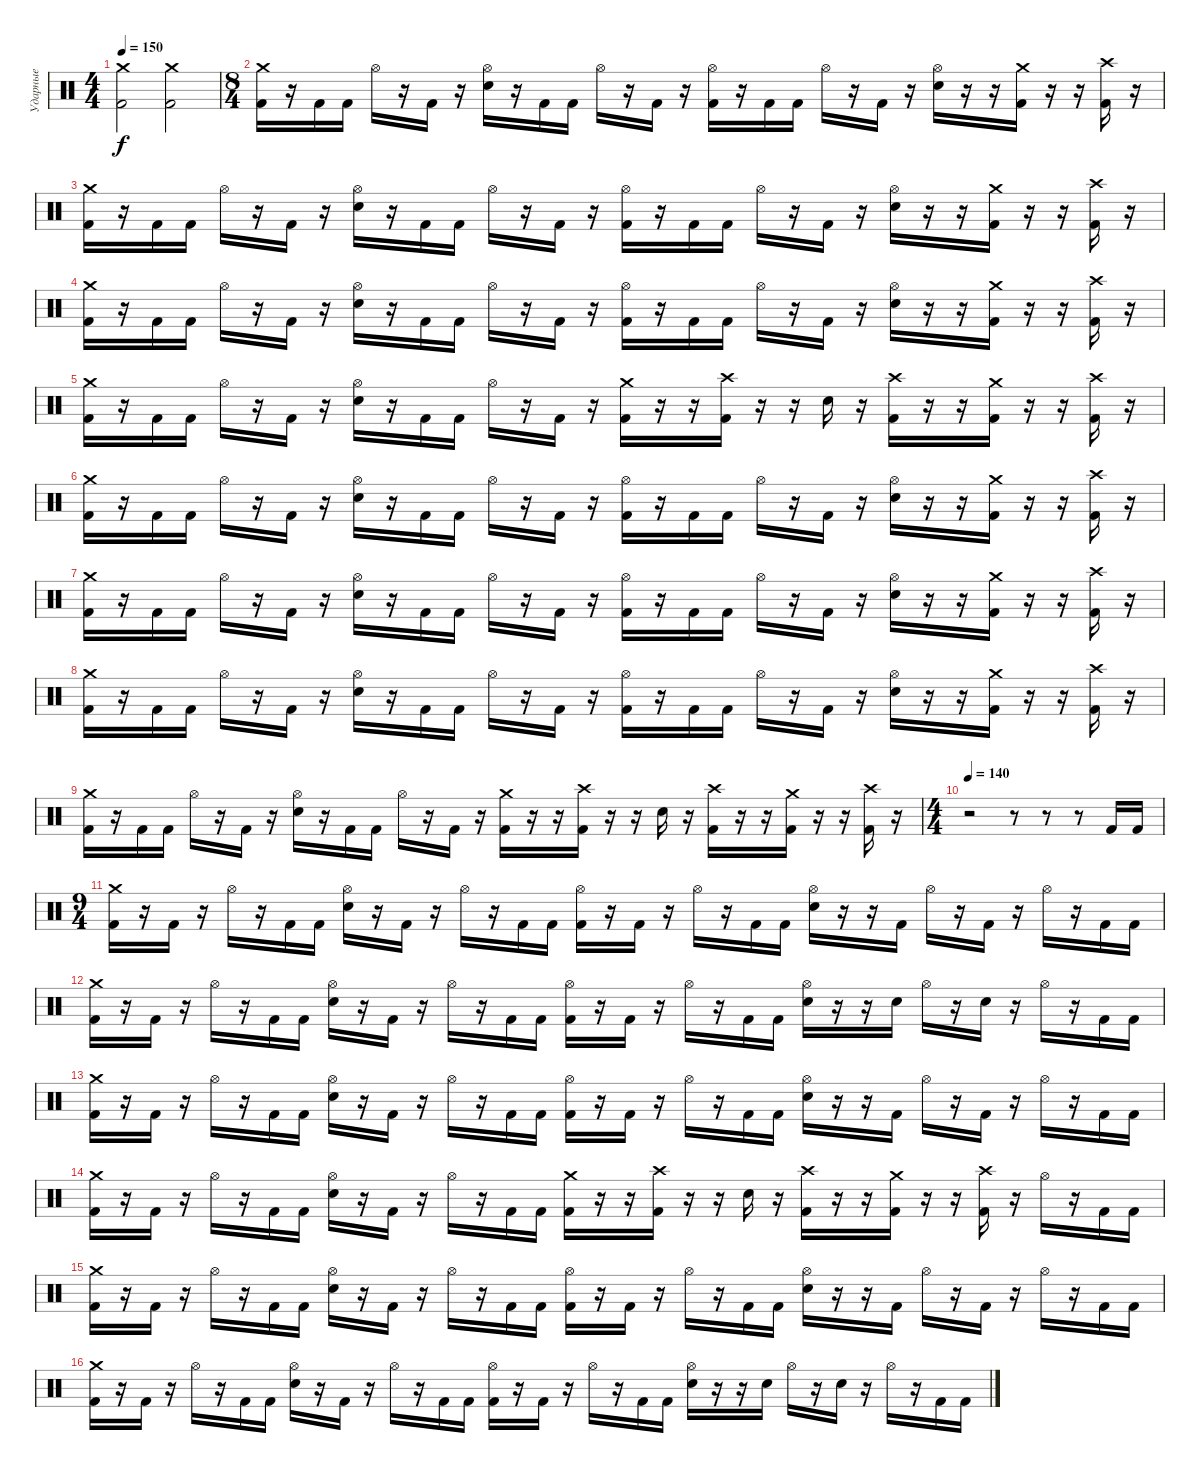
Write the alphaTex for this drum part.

\track ("Ударные" "Ударные") {instrument percussion}
\staff {score}
\articulation defaults
\ts (4 4)
\tempo 150
\clef neutral
\ks c
("Kick (hit) 2" "Crash medium (hit)").2{dy f} ("Kick (hit) 2" "Crash medium (hit)").2 |
\ts (8 4)
("Kick (hit) 2" "Crash medium (hit)").16 r.16 "Kick (hit) 2".16 "Kick (hit) 2".16 "Hi-Hat (open)".16 r.16 "Kick (hit) 2".16 r.16 ("Electric Snare (hit)" "Hi-Hat (open)").16 r.16 "Kick (hit) 2".16 "Kick (hit) 2".16 "Hi-Hat (open)".16 r.16 "Kick (hit) 2".16 r.16 ("Kick (hit) 2" "Hi-Hat (open)").16 r.16 "Kick (hit) 2".16 "Kick (hit) 2".16 "Hi-Hat (open)".16 r.16 "Kick (hit) 2".16 r.16 ("Electric Snare (hit)" "Hi-Hat (open)").16 r.16 r.16 ("Kick (hit) 2" "Crash medium (hit)").16 r.16 r.16 ("Kick (hit) 2" "Crash high (hit)").16 r.16 |
("Kick (hit) 2" "Crash medium (hit)").16 r.16 "Kick (hit) 2".16 "Kick (hit) 2".16 "Hi-Hat (open)".16 r.16 "Kick (hit) 2".16 r.16 ("Electric Snare (hit)" "Hi-Hat (open)").16 r.16 "Kick (hit) 2".16 "Kick (hit) 2".16 "Hi-Hat (open)".16 r.16 "Kick (hit) 2".16 r.16 ("Kick (hit) 2" "Hi-Hat (open)").16 r.16 "Kick (hit) 2".16 "Kick (hit) 2".16 "Hi-Hat (open)".16 r.16 "Kick (hit) 2".16 r.16 ("Electric Snare (hit)" "Hi-Hat (open)").16 r.16 r.16 ("Kick (hit) 2" "Crash medium (hit)").16 r.16 r.16 ("Kick (hit) 2" "Crash high (hit)").16 r.16 |
("Kick (hit) 2" "Crash medium (hit)").16 r.16 "Kick (hit) 2".16 "Kick (hit) 2".16 "Hi-Hat (open)".16 r.16 "Kick (hit) 2".16 r.16 ("Electric Snare (hit)" "Hi-Hat (open)").16 r.16 "Kick (hit) 2".16 "Kick (hit) 2".16 "Hi-Hat (open)".16 r.16 "Kick (hit) 2".16 r.16 ("Kick (hit) 2" "Hi-Hat (open)").16 r.16 "Kick (hit) 2".16 "Kick (hit) 2".16 "Hi-Hat (open)".16 r.16 "Kick (hit) 2".16 r.16 ("Electric Snare (hit)" "Hi-Hat (open)").16 r.16 r.16 ("Kick (hit) 2" "Crash medium (hit)").16 r.16 r.16 ("Kick (hit) 2" "Crash high (hit)").16 r.16 |
("Kick (hit) 2" "Crash medium (hit)").16 r.16 "Kick (hit) 2".16 "Kick (hit) 2".16 "Hi-Hat (open)".16 r.16 "Kick (hit) 2".16 r.16 ("Electric Snare (hit)" "Hi-Hat (open)").16 r.16 "Kick (hit) 2".16 "Kick (hit) 2".16 "Hi-Hat (open)".16 r.16 "Kick (hit) 2".16 r.16 ("Kick (hit) 2" "Crash medium (hit)").16 r.16 r.16 ("Kick (hit) 2" "Crash high (hit)").16 r.16 r.16 "Electric Snare (hit)".16 r.16 ("Kick (hit) 2" "Crash high (hit)").16 r.16 r.16 ("Kick (hit) 2" "Crash medium (hit)").16 r.16 r.16 ("Kick (hit) 2" "Crash high (hit)").16 r.16 |
("Kick (hit) 2" "Crash medium (hit)").16 r.16 "Kick (hit) 2".16 "Kick (hit) 2".16 "Hi-Hat (open)".16 r.16 "Kick (hit) 2".16 r.16 ("Electric Snare (hit)" "Hi-Hat (open)").16 r.16 "Kick (hit) 2".16 "Kick (hit) 2".16 "Hi-Hat (open)".16 r.16 "Kick (hit) 2".16 r.16 ("Kick (hit) 2" "Hi-Hat (open)").16 r.16 "Kick (hit) 2".16 "Kick (hit) 2".16 "Hi-Hat (open)".16 r.16 "Kick (hit) 2".16 r.16 ("Electric Snare (hit)" "Hi-Hat (open)").16 r.16 r.16 ("Kick (hit) 2" "Crash medium (hit)").16 r.16 r.16 ("Kick (hit) 2" "Crash high (hit)").16 r.16 |
("Kick (hit) 2" "Crash medium (hit)").16 r.16 "Kick (hit) 2".16 "Kick (hit) 2".16 "Hi-Hat (open)".16 r.16 "Kick (hit) 2".16 r.16 ("Electric Snare (hit)" "Hi-Hat (open)").16 r.16 "Kick (hit) 2".16 "Kick (hit) 2".16 "Hi-Hat (open)".16 r.16 "Kick (hit) 2".16 r.16 ("Kick (hit) 2" "Hi-Hat (open)").16 r.16 "Kick (hit) 2".16 "Kick (hit) 2".16 "Hi-Hat (open)".16 r.16 "Kick (hit) 2".16 r.16 ("Electric Snare (hit)" "Hi-Hat (open)").16 r.16 r.16 ("Kick (hit) 2" "Crash medium (hit)").16 r.16 r.16 ("Kick (hit) 2" "Crash high (hit)").16 r.16 |
("Kick (hit) 2" "Crash medium (hit)").16 r.16 "Kick (hit) 2".16 "Kick (hit) 2".16 "Hi-Hat (open)".16 r.16 "Kick (hit) 2".16 r.16 ("Electric Snare (hit)" "Hi-Hat (open)").16 r.16 "Kick (hit) 2".16 "Kick (hit) 2".16 "Hi-Hat (open)".16 r.16 "Kick (hit) 2".16 r.16 ("Kick (hit) 2" "Hi-Hat (open)").16 r.16 "Kick (hit) 2".16 "Kick (hit) 2".16 "Hi-Hat (open)".16 r.16 "Kick (hit) 2".16 r.16 ("Electric Snare (hit)" "Hi-Hat (open)").16 r.16 r.16 ("Kick (hit) 2" "Crash medium (hit)").16 r.16 r.16 ("Kick (hit) 2" "Crash high (hit)").16 r.16 |
("Kick (hit) 2" "Crash medium (hit)").16 r.16 "Kick (hit) 2".16 "Kick (hit) 2".16 "Hi-Hat (open)".16 r.16 "Kick (hit) 2".16 r.16 ("Electric Snare (hit)" "Hi-Hat (open)").16 r.16 "Kick (hit) 2".16 "Kick (hit) 2".16 "Hi-Hat (open)".16 r.16 "Kick (hit) 2".16 r.16 ("Kick (hit) 2" "Crash medium (hit)").16 r.16 r.16 ("Kick (hit) 2" "Crash high (hit)").16 r.16 r.16 "Electric Snare (hit)".16 r.16 ("Kick (hit) 2" "Crash high (hit)").16 r.16 r.16 ("Kick (hit) 2" "Crash medium (hit)").16 r.16 r.16 ("Kick (hit) 2" "Crash high (hit)").16 r.16 |
\ts (4 4)
\tempo 140
r.2 r.8 r.8 r.8 "Kick (hit) 2".16 "Kick (hit) 2".16 |
\ts (9 4)
("Kick (hit) 2" "Crash medium (hit)").16 r.16 "Kick (hit) 2".16 r.16 "Hi-Hat (open)".16 r.16 "Kick (hit) 2".16 "Kick (hit) 2".16 ("Electric Snare (hit)" "Hi-Hat (open)").16 r.16 "Kick (hit) 2".16 r.16 "Hi-Hat (open)".16 r.16 "Kick (hit) 2".16 "Kick (hit) 2".16 ("Kick (hit) 2" "Hi-Hat (open)").16 r.16 "Kick (hit) 2".16 r.16 "Hi-Hat (open)".16 r.16 "Kick (hit) 2".16 "Kick (hit) 2".16 ("Electric Snare (hit)" "Hi-Hat (open)").16 r.16 r.16 "Kick (hit) 2".16 "Hi-Hat (open)".16 r.16 "Kick (hit) 2".16 r.16 "Hi-Hat (open)".16 r.16 "Kick (hit) 2".16 "Kick (hit) 2".16 |
("Kick (hit) 2" "Crash medium (hit)").16 r.16 "Kick (hit) 2".16 r.16 "Hi-Hat (open)".16 r.16 "Kick (hit) 2".16 "Kick (hit) 2".16 ("Electric Snare (hit)" "Hi-Hat (open)").16 r.16 "Kick (hit) 2".16 r.16 "Hi-Hat (open)".16 r.16 "Kick (hit) 2".16 "Kick (hit) 2".16 ("Kick (hit) 2" "Hi-Hat (open)").16 r.16 "Kick (hit) 2".16 r.16 "Hi-Hat (open)".16 r.16 "Kick (hit) 2".16 "Kick (hit) 2".16 ("Electric Snare (hit)" "Hi-Hat (open)").16 r.16 r.16 "Electric Snare (hit)".16 "Hi-Hat (open)".16 r.16 "Electric Snare (hit)".16 r.16 "Hi-Hat (open)".16 r.16 "Kick (hit) 2".16 "Kick (hit) 2".16 |
("Kick (hit) 2" "Crash medium (hit)").16 r.16 "Kick (hit) 2".16 r.16 "Hi-Hat (open)".16 r.16 "Kick (hit) 2".16 "Kick (hit) 2".16 ("Electric Snare (hit)" "Hi-Hat (open)").16 r.16 "Kick (hit) 2".16 r.16 "Hi-Hat (open)".16 r.16 "Kick (hit) 2".16 "Kick (hit) 2".16 ("Kick (hit) 2" "Hi-Hat (open)").16 r.16 "Kick (hit) 2".16 r.16 "Hi-Hat (open)".16 r.16 "Kick (hit) 2".16 "Kick (hit) 2".16 ("Electric Snare (hit)" "Hi-Hat (open)").16 r.16 r.16 "Kick (hit) 2".16 "Hi-Hat (open)".16 r.16 "Kick (hit) 2".16 r.16 "Hi-Hat (open)".16 r.16 "Kick (hit) 2".16 "Kick (hit) 2".16 |
("Kick (hit) 2" "Crash medium (hit)").16 r.16 "Kick (hit) 2".16 r.16 "Hi-Hat (open)".16 r.16 "Kick (hit) 2".16 "Kick (hit) 2".16 ("Electric Snare (hit)" "Hi-Hat (open)").16 r.16 "Kick (hit) 2".16 r.16 "Hi-Hat (open)".16 r.16 "Kick (hit) 2".16 "Kick (hit) 2".16 ("Kick (hit) 2" "Crash medium (hit)").16 r.16 r.16 ("Kick (hit) 2" "Crash high (hit)").16 r.16 r.16 "Electric Snare (hit)".16 r.16 ("Kick (hit) 2" "Crash high (hit)").16 r.16 r.16 ("Kick (hit) 2" "Crash medium (hit)").16 r.16 r.16 ("Kick (hit) 2" "Crash high (hit)").16 r.16 "Hi-Hat (open)".16 r.16 "Kick (hit) 2".16 "Kick (hit) 2".16 |
("Kick (hit) 2" "Crash medium (hit)").16 r.16 "Kick (hit) 2".16 r.16 "Hi-Hat (open)".16 r.16 "Kick (hit) 2".16 "Kick (hit) 2".16 ("Electric Snare (hit)" "Hi-Hat (open)").16 r.16 "Kick (hit) 2".16 r.16 "Hi-Hat (open)".16 r.16 "Kick (hit) 2".16 "Kick (hit) 2".16 ("Kick (hit) 2" "Hi-Hat (open)").16 r.16 "Kick (hit) 2".16 r.16 "Hi-Hat (open)".16 r.16 "Kick (hit) 2".16 "Kick (hit) 2".16 ("Electric Snare (hit)" "Hi-Hat (open)").16 r.16 r.16 "Kick (hit) 2".16 "Hi-Hat (open)".16 r.16 "Kick (hit) 2".16 r.16 "Hi-Hat (open)".16 r.16 "Kick (hit) 2".16 "Kick (hit) 2".16 |
("Kick (hit) 2" "Crash medium (hit)").16 r.16 "Kick (hit) 2".16 r.16 "Hi-Hat (open)".16 r.16 "Kick (hit) 2".16 "Kick (hit) 2".16 ("Electric Snare (hit)" "Hi-Hat (open)").16 r.16 "Kick (hit) 2".16 r.16 "Hi-Hat (open)".16 r.16 "Kick (hit) 2".16 "Kick (hit) 2".16 ("Kick (hit) 2" "Hi-Hat (open)").16 r.16 "Kick (hit) 2".16 r.16 "Hi-Hat (open)".16 r.16 "Kick (hit) 2".16 "Kick (hit) 2".16 ("Electric Snare (hit)" "Hi-Hat (open)").16 r.16 r.16 "Electric Snare (hit)".16 "Hi-Hat (open)".16 r.16 "Electric Snare (hit)".16 r.16 "Hi-Hat (open)".16 r.16 "Kick (hit) 2".16 "Kick (hit) 2".16
